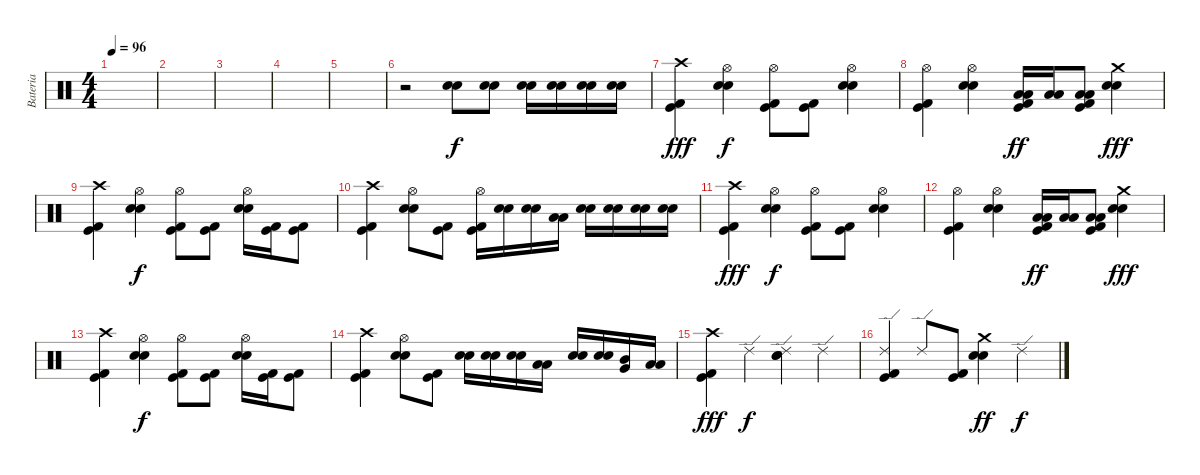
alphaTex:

\track ("Bateria" "Bateria") {instrument percussion}
\staff {score}
\articulation defaults
\ts (4 4)
\tempo 96
\clef neutral
\ks c
|
|
|
|
|
r.2 ("Electric Snare (hit)" "Snare (hit) 2").8 ("Electric Snare (hit)" "Snare (hit) 2").8 ("Electric Snare (hit)" "Snare (hit) 2").16 ("Electric Snare (hit)" "Snare (hit) 2").16 ("Electric Snare (hit)" "Snare (hit) 2").16 ("Electric Snare (hit)" "Snare (hit) 2").16 |
("Crash high (hit)" "Kick (hit) 2" "Kick (hit)").4{dy fff} ("Hi-Hat (open)" "Electric Snare (hit)" "Snare (hit) 2").4{dy f} ("Hi-Hat (open)" "Kick (hit) 2" "Kick (hit)").8 ("Kick (hit) 2" "Kick (hit)").8 ("Hi-Hat (open)" "Electric Snare (hit)" "Snare (hit) 2").4 |
("Hi-Hat (open)" "Kick (hit) 2" "Kick (hit)").4 ("Hi-Hat (open)" "Electric Snare (hit)" "Snare (hit) 2").4 ("Low Tom (hit)" "Low Floor Tom (hit)" "Kick (hit) 2" "Kick (hit)").16{dy ff} ("Low Tom (hit)" "Low Floor Tom (hit)").16 ("Low Tom (hit)" "Low Floor Tom (hit)" "Kick (hit) 2" "Kick (hit)").8 ("Crash medium (hit)" "Electric Snare (hit)" "Snare (hit) 2").4{dy fff} |
("Crash high (hit)" "Kick (hit) 2" "Kick (hit)").4 ("Hi-Hat (open)" "Electric Snare (hit)" "Snare (hit) 2").4{dy f} ("Hi-Hat (open)" "Kick (hit) 2" "Kick (hit)").8 ("Kick (hit) 2" "Kick (hit)").8 ("Hi-Hat (open)" "Electric Snare (hit)" "Snare (hit) 2").16 ("Kick (hit) 2" "Kick (hit)").16 ("Kick (hit) 2" "Kick (hit)").8 |
("Crash high (hit)" "Kick (hit) 2" "Kick (hit)").4 ("Hi-Hat (open)" "Electric Snare (hit)" "Snare (hit) 2").8 ("Kick (hit) 2" "Kick (hit)").8 ("Hi-Hat (open)" "Kick (hit) 2" "Kick (hit)").16 ("Electric Snare (hit)" "Snare (hit) 2").16 ("Electric Snare (hit)" "Snare (hit) 2").16 ("Low Tom (hit)" "Low Floor Tom (hit)").16 ("Electric Snare (hit)" "Snare (hit) 2").16 ("Electric Snare (hit)" "Snare (hit) 2").16 ("Electric Snare (hit)" "Snare (hit) 2").16 ("Electric Snare (hit)" "Snare (hit) 2").16 |
("Crash high (hit)" "Kick (hit) 2" "Kick (hit)").4{dy fff} ("Hi-Hat (open)" "Electric Snare (hit)" "Snare (hit) 2").4{dy f} ("Hi-Hat (open)" "Kick (hit) 2" "Kick (hit)").8 ("Kick (hit) 2" "Kick (hit)").8 ("Hi-Hat (open)" "Electric Snare (hit)" "Snare (hit) 2").4 |
("Hi-Hat (open)" "Kick (hit) 2" "Kick (hit)").4 ("Hi-Hat (open)" "Electric Snare (hit)" "Snare (hit) 2").4 ("Low Tom (hit)" "Low Floor Tom (hit)" "Kick (hit) 2" "Kick (hit)").16{dy ff} ("Low Tom (hit)" "Low Floor Tom (hit)").16 ("Low Tom (hit)" "Low Floor Tom (hit)" "Kick (hit) 2" "Kick (hit)").8 ("Crash medium (hit)" "Electric Snare (hit)" "Snare (hit) 2").4{dy fff} |
("Crash high (hit)" "Kick (hit) 2" "Kick (hit)").4 ("Hi-Hat (open)" "Electric Snare (hit)" "Snare (hit) 2").4{dy f} ("Hi-Hat (open)" "Kick (hit) 2" "Kick (hit)").8 ("Kick (hit) 2" "Kick (hit)").8 ("Hi-Hat (open)" "Electric Snare (hit)" "Snare (hit) 2").16 ("Kick (hit) 2" "Kick (hit)").16 ("Kick (hit) 2" "Kick (hit)").8 |
("Crash high (hit)" "Kick (hit) 2" "Kick (hit)").4 ("Hi-Hat (open)" "Electric Snare (hit)" "Snare (hit) 2").8 ("Kick (hit) 2" "Kick (hit)").8 ("Electric Snare (hit)" "Snare (hit) 2").16 ("Electric Snare (hit)" "Snare (hit) 2").16 ("Electric Snare (hit)" "Snare (hit) 2").16 ("Low Tom (hit)" "Low Floor Tom (hit)").16 ("Electric Snare (hit)" "Snare (hit) 2").16 ("Electric Snare (hit)" "Snare (hit) 2").16 ("Mid Tom (hit)" "Very Low Tom (hit)").16 ("Low Tom (hit)" "Low Floor Tom (hit)").16 |
("Crash high (hit)" "Kick (hit) 2" "Kick (hit)").4{dy fff} "Ride (edge) 2".4{dy f} ("Ride (edge) 2" "Electric Snare (hit)" "Snare (hit) 2").4 "Ride (edge) 2".4 |
("Ride (edge) 2" "Kick (hit) 2" "Kick (hit)").4 "Ride (edge) 2".8 ("Kick (hit) 2" "Kick (hit)").8 ("Crash medium (hit)" "Electric Snare (hit)" "Snare (hit) 2").4{dy ff} "Ride (edge) 2".4{dy f}
